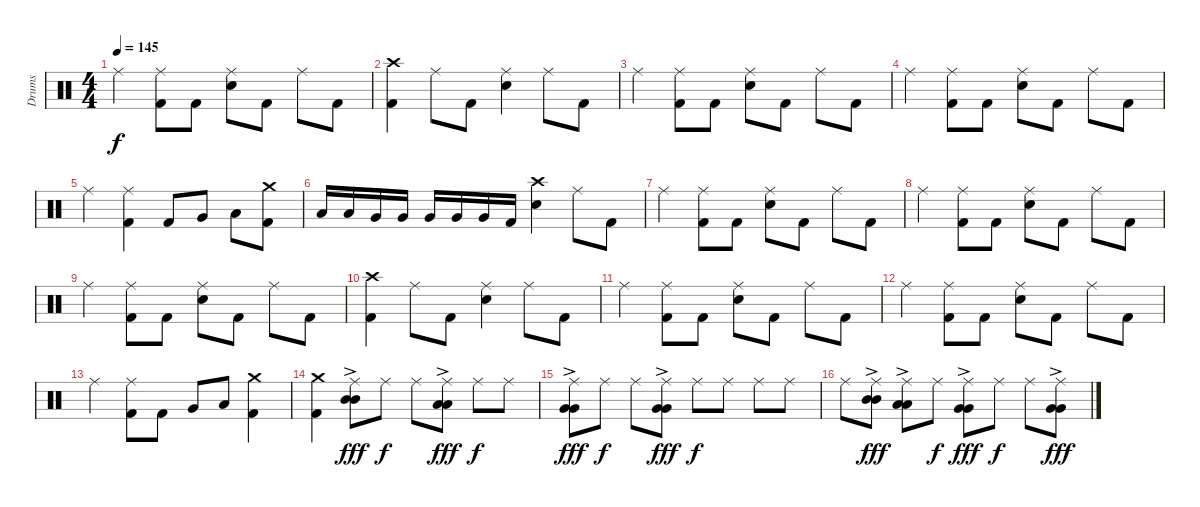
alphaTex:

\track ("Drums" "Drums") {instrument percussion}
\staff {score}
\articulation defaults
\ts (4 4)
\tempo 145
\clef neutral
\ks c "Ride (middle)".4{dy f}
("Ride (middle)" "Kick (hit) 2").8 "Kick (hit) 2".8 ("Ride (middle)" "Snare (hit) 2").8 "Kick (hit) 2".8 "Ride (middle)".8 "Kick (hit) 2".8 |
("Crash high (hit)" "Kick (hit) 2").4 "Ride (middle)".8 "Kick (hit) 2".8 ("Ride (middle)" "Snare (hit) 2").4 "Ride (middle)".8 "Kick (hit) 2".8 |
"Ride (middle)".4 ("Ride (middle)" "Kick (hit) 2").8 "Kick (hit) 2".8 ("Ride (middle)" "Snare (hit) 2").8 "Kick (hit) 2".8 "Ride (middle)".8 "Kick (hit) 2".8 |
"Ride (middle)".4 ("Ride (middle)" "Kick (hit) 2").8 "Kick (hit) 2".8 ("Ride (middle)" "Snare (hit) 2").8 "Kick (hit) 2".8 "Ride (middle)".8 "Kick (hit) 2".8 |
"Ride (middle)".4 ("Ride (middle)" "Kick (hit) 2").4 "Kick (hit) 2".8 "Very Low Tom (hit)".8 "Low Floor Tom (hit)".8 ("Crash medium (hit)" "Kick (hit) 2").8 |
"Low Tom (hit)".16 "Low Tom (hit)".16 "Very Low Tom (hit)".16 "Very Low Tom (hit)".16 "Very Low Tom (hit)".16 "Very Low Tom (hit)".16 "Very Low Tom (hit)".16 "Kick (hit) 2".16 ("Crash high (hit)" "Snare (hit) 2").4 "Ride (middle)".8 "Kick (hit) 2".8 |
"Ride (middle)".4 ("Ride (middle)" "Kick (hit) 2").8 "Kick (hit) 2".8 ("Ride (middle)" "Snare (hit) 2").8 "Kick (hit) 2".8 "Ride (middle)".8 "Kick (hit) 2".8 |
"Ride (middle)".4 ("Ride (middle)" "Kick (hit) 2").8 "Kick (hit) 2".8 ("Ride (middle)" "Snare (hit) 2").8 "Kick (hit) 2".8 "Ride (middle)".8 "Kick (hit) 2".8 |
"Ride (middle)".4 ("Ride (middle)" "Kick (hit) 2").8 "Kick (hit) 2".8 ("Ride (middle)" "Snare (hit) 2").8 "Kick (hit) 2".8 "Ride (middle)".8 "Kick (hit) 2".8 |
("Crash high (hit)" "Kick (hit) 2").4 "Ride (middle)".8 "Kick (hit) 2".8 ("Ride (middle)" "Snare (hit) 2").4 "Ride (middle)".8 "Kick (hit) 2".8 |
"Ride (middle)".4 ("Ride (middle)" "Kick (hit) 2").8 "Kick (hit) 2".8 ("Ride (middle)" "Snare (hit) 2").8 "Kick (hit) 2".8 "Ride (middle)".8 "Kick (hit) 2".8 |
"Ride (middle)".4 ("Ride (middle)" "Kick (hit) 2").8 "Kick (hit) 2".8 ("Ride (middle)" "Snare (hit) 2").8 "Kick (hit) 2".8 "Ride (middle)".8 "Kick (hit) 2".8 |
"Ride (middle)".4 ("Ride (middle)" "Kick (hit) 2").8 "Kick (hit) 2".8 "Very Low Tom (hit)".8 "Low Floor Tom (hit)".8 ("Crash medium (hit)" "Kick (hit) 2").4 |
("Crash medium (hit)" "Kick (hit) 2").4 ("Ride (middle)" "Mid Tom (hit)"{ac} "Mid Tom (hit)"{ac}).8{dy fff} "Ride (middle)".8{dy f} "Ride (middle)".8 ("Ride (middle)" "Low Tom (hit)"{ac} "Low Tom (hit)"{ac}).8{dy fff} "Ride (middle)".8{dy f} "Ride (middle)".8 |
("Ride (middle)" "Very Low Tom (hit)"{ac} "Very Low Tom (hit)"{ac}).8{dy fff} "Ride (middle)".8{dy f} "Ride (middle)".8 ("Ride (middle)" "Very Low Tom (hit)"{ac} "Very Low Tom (hit)"{ac}).8{dy fff} "Ride (middle)".8{dy f} "Ride (middle)".8 "Ride (middle)".8 "Ride (middle)".8 |
"Ride (middle)".8 ("Ride (middle)" "Mid Tom (hit)" "Mid Tom (hit)"{ac}).8{dy fff} ("Ride (middle)" "Low Tom (hit)" "Low Tom (hit)"{ac}).8 "Ride (middle)".8{dy f} ("Ride (middle)" "Very Low Tom (hit)"{ac} "Very Low Tom (hit)"{ac}).8{dy fff} "Ride (middle)".8{dy f} "Ride (middle)".8 ("Ride (middle)" "Very Low Tom (hit)"{ac} "Very Low Tom (hit)"{ac}).8{dy fff}
